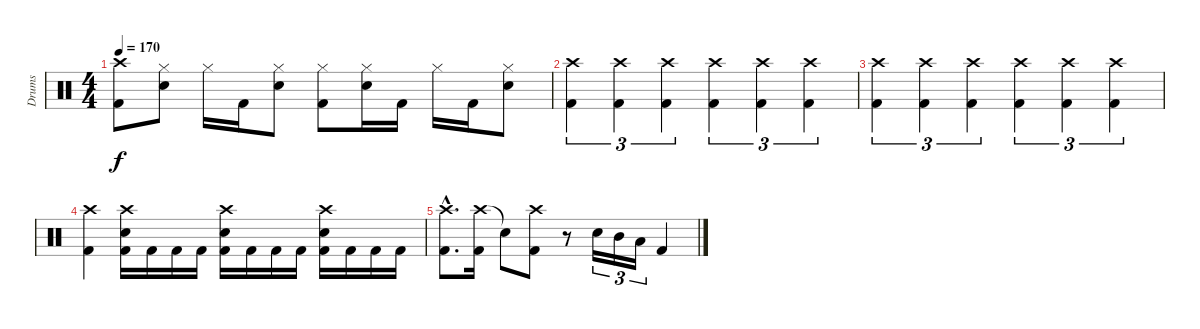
\track ("Drums" "Drums") {instrument percussion}
\staff {score}
\articulation defaults
\ts (4 4)
\tempo 170
\clef neutral
\ks c
("Crash high (hit)" "Kick (hit) 2").8{dy f} ("Hi-Hat (closed)" "Snare (hit) 2").8 "Hi-Hat (closed)".16 "Kick (hit) 2".16 ("Hi-Hat (closed)" "Snare (hit) 2").8 ("Hi-Hat (closed)" "Kick (hit) 2").8 ("Hi-Hat (closed)" "Snare (hit) 2").16 "Kick (hit) 2".16 "Hi-Hat (closed)".16 "Kick (hit) 2".16 ("Hi-Hat (closed)" "Snare (hit) 2").8 |
("Crash high (hit)" "Kick (hit) 2").4{tu (3 2)} ("Crash high (hit)" "Kick (hit) 2").4{tu (3 2)} ("Crash high (hit)" "Kick (hit) 2").4{tu (3 2)} ("Crash high (hit)" "Kick (hit) 2").4{tu (3 2)} ("Crash high (hit)" "Kick (hit) 2").4{tu (3 2)} ("Crash high (hit)" "Kick (hit) 2").4{tu (3 2)} |
("Crash high (hit)" "Kick (hit) 2").4{tu (3 2)} ("Crash high (hit)" "Kick (hit) 2").4{tu (3 2)} ("Crash high (hit)" "Kick (hit) 2").4{tu (3 2)} ("Crash high (hit)" "Kick (hit) 2").4{tu (3 2)} ("Crash high (hit)" "Kick (hit) 2").4{tu (3 2)} ("Crash high (hit)" "Kick (hit) 2").4{tu (3 2)} |
("Crash high (hit)" "Kick (hit) 2").4 ("Crash high (hit)" "Snare (hit) 2" "Kick (hit) 2").16 "Kick (hit) 2".16 "Kick (hit) 2".16 "Kick (hit) 2".16 ("Crash high (hit)" "Snare (hit) 2" "Kick (hit) 2").16 "Kick (hit) 2".16 "Kick (hit) 2".16 "Kick (hit) 2".16 ("Crash high (hit)" "Snare (hit) 2" "Kick (hit) 2").16 "Kick (hit) 2".16 "Kick (hit) 2".16 "Kick (hit) 2".16 |
("Crash high (hit)"{hac} "Kick (hit) 2"{hac}).8{d} ("Crash high (hit)" "Kick (hit) 2").16 "Snare (hit)"{t}.8 ("Crash high (hit)" "Kick (hit) 2").8 r.8 "Snare (hit) 2".16{tu (3 2)} "Mid Tom (hit)".16{tu (3 2)} "Low Floor Tom (hit)".16{tu (3 2)} "Kick (hit) 2".4
